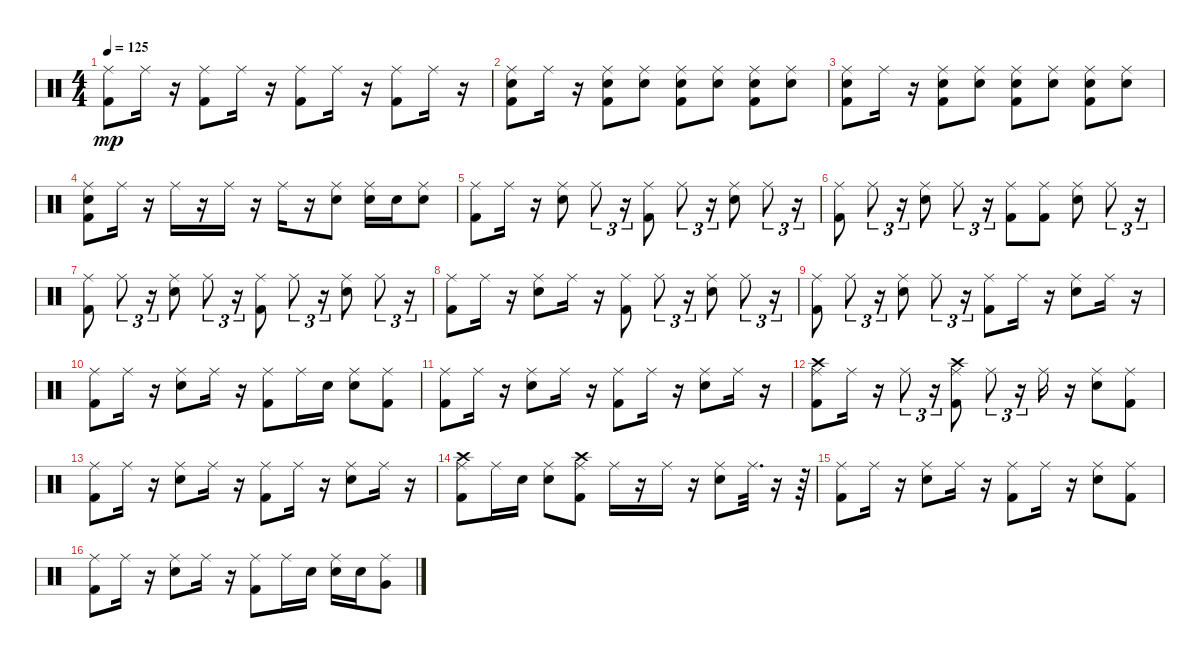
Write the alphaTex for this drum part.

\track "" {instrument percussion}
\staff {score}
\articulation defaults
\ts (4 4)
\tempo 125
\clef neutral
\ks c
("Ride (middle)" "Kick (hit) 2").8{dy mp} "Ride (middle)".16 r.16 ("Ride (middle)" "Kick (hit) 2").8 "Ride (middle)".16 r.16 ("Ride (middle)" "Kick (hit) 2").8 "Ride (middle)".16 r.16 ("Ride (middle)" "Kick (hit) 2").8 "Ride (middle)".16 r.16 |
("Ride (middle)" "Kick (hit) 2" "Snare (hit) 2").8 "Ride (middle)".16 r.16 ("Ride (middle)" "Snare (hit) 2" "Kick (hit) 2").8 ("Ride (middle)" "Snare (hit) 2").8 ("Ride (middle)" "Snare (hit) 2" "Kick (hit) 2").8 ("Ride (middle)" "Snare (hit) 2").8 ("Ride (middle)" "Snare (hit) 2" "Kick (hit) 2").8 ("Ride (middle)" "Snare (hit) 2").8 |
("Ride (middle)" "Snare (hit) 2" "Kick (hit) 2").8 "Ride (middle)".16 r.16 ("Ride (middle)" "Snare (hit) 2" "Kick (hit) 2").8 ("Ride (middle)" "Snare (hit) 2").8 ("Ride (middle)" "Snare (hit) 2" "Kick (hit) 2").8 ("Ride (middle)" "Snare (hit) 2").8 ("Ride (middle)" "Snare (hit) 2" "Kick (hit) 2").8 ("Ride (middle)" "Snare (hit) 2").8 |
("Ride (middle)" "Snare (hit) 2" "Kick (hit) 2").8 "Ride (middle)".16 r.16 "Ride (middle)".16 r.16 "Ride (middle)".16 r.16 "Ride (middle)".16 r.16 ("Ride (middle)" "Snare (hit) 2").8 ("Snare (hit) 2" "Ride (middle)").16 "Snare (hit) 2".16 ("Ride (middle)" "Snare (hit) 2").8 |
("Ride (middle)" "Kick (hit) 2").8 "Ride (middle)".16 r.16 ("Ride (middle)" "Snare (hit) 2").8 "Ride (middle)".8{tu (3 2)} r.16{tu (3 2)} ("Ride (middle)" "Kick (hit) 2").8 "Ride (middle)".8{tu (3 2)} r.16{tu (3 2)} ("Ride (middle)" "Snare (hit) 2").8 "Ride (middle)".8{tu (3 2)} r.16{tu (3 2)} |
("Ride (middle)" "Kick (hit) 2").8 "Ride (middle)".8{tu (3 2)} r.16{tu (3 2)} ("Ride (middle)" "Snare (hit) 2").8 "Ride (middle)".8{tu (3 2)} r.16{tu (3 2)} ("Ride (middle)" "Kick (hit) 2").8 ("Ride (middle)" "Kick (hit) 2").8 ("Ride (middle)" "Snare (hit) 2").8 "Ride (middle)".8{tu (3 2)} r.16{tu (3 2)} |
("Ride (middle)" "Kick (hit) 2").8 "Ride (middle)".8{tu (3 2)} r.16{tu (3 2)} ("Ride (middle)" "Snare (hit) 2").8 "Ride (middle)".8{tu (3 2)} r.16{tu (3 2)} ("Ride (middle)" "Kick (hit) 2").8 "Ride (middle)".8{tu (3 2)} r.16{tu (3 2)} ("Ride (middle)" "Snare (hit) 2").8 "Ride (middle)".8{tu (3 2)} r.16{tu (3 2)} |
("Ride (middle)" "Kick (hit) 2").8 "Ride (middle)".16 r.16 ("Ride (middle)" "Snare (hit) 2").8 "Ride (middle)".16 r.16 ("Ride (middle)" "Kick (hit) 2").8 "Ride (middle)".8{tu (3 2)} r.16{tu (3 2)} ("Ride (middle)" "Snare (hit) 2").8 "Ride (middle)".8{tu (3 2)} r.16{tu (3 2)} |
("Ride (middle)" "Kick (hit) 2").8 "Ride (middle)".8{tu (3 2)} r.16{tu (3 2)} ("Ride (middle)" "Snare (hit) 2").8 "Ride (middle)".8{tu (3 2)} r.16{tu (3 2)} ("Ride (middle)" "Kick (hit) 2").8 "Ride (middle)".16 r.16 ("Ride (middle)" "Snare (hit) 2").8 "Ride (middle)".16 r.16 |
("Ride (middle)" "Kick (hit) 2").8 "Ride (middle)".16 r.16 ("Ride (middle)" "Snare (hit) 2").8 "Ride (middle)".16 r.16 ("Ride (middle)" "Kick (hit) 2").8 "Ride (middle)".16 "Snare (hit) 2".16 ("Ride (middle)" "Snare (hit) 2").8 ("Ride (middle)" "Kick (hit) 2").8 |
("Ride (middle)" "Kick (hit) 2").8 "Ride (middle)".16 r.16 ("Ride (middle)" "Snare (hit) 2").8 "Ride (middle)".16 r.16 ("Ride (middle)" "Kick (hit) 2").8 "Ride (middle)".16 r.16 ("Ride (middle)" "Snare (hit) 2").8 "Ride (middle)".16 r.16 |
("Ride (middle)" "Crash high (hit)" "Kick (hit) 2").8 "Ride (middle)".16 r.16 "Ride (middle)".8{tu (3 2)} r.16{tu (3 2)} ("Ride (middle)" "Crash high (hit)" "Kick (hit) 2").8 "Ride (middle)".8{tu (3 2)} r.16{tu (3 2)} "Ride (middle)".16 r.16 ("Ride (middle)" "Snare (hit) 2").8 ("Ride (middle)" "Kick (hit) 2").8 |
("Ride (middle)" "Kick (hit) 2").8 "Ride (middle)".16 r.16 ("Ride (middle)" "Snare (hit) 2").8 "Ride (middle)".16 r.16 ("Ride (middle)" "Kick (hit) 2").8 "Ride (middle)".16 r.16 ("Ride (middle)" "Snare (hit) 2").8 "Ride (middle)".16 r.16 |
("Ride (middle)" "Crash high (hit)" "Kick (hit) 2").8 "Ride (middle)".16 "Snare (hit) 2".16 ("Ride (middle)" "Snare (hit) 2").8 ("Ride (middle)" "Crash high (hit)" "Kick (hit) 2").8 "Ride (middle)".16 r.16 "Ride (middle)".16 r.16 ("Ride (middle)" "Snare (hit) 2").8 "Ride (middle)".32{d} r.16 r.64 |
("Ride (middle)" "Kick (hit) 2").8 "Ride (middle)".16 r.16 ("Ride (middle)" "Snare (hit) 2").8 "Ride (middle)".16 r.16 ("Ride (middle)" "Kick (hit) 2").8 "Ride (middle)".16 r.16 ("Ride (middle)" "Snare (hit) 2").8 ("Ride (middle)" "Kick (hit) 2").8 |
("Ride (middle)" "Kick (hit) 2").8 "Ride (middle)".16 r.16 ("Ride (middle)" "Snare (hit) 2").8 "Ride (middle)".16 r.16 ("Ride (middle)" "Kick (hit) 2").8 "Ride (middle)".16 "Snare (hit) 2".16 ("Snare (hit) 2" "Ride (middle)").16 "Snare (hit) 2".16 ("Ride (middle)" "Very Low Tom (hit)").8
